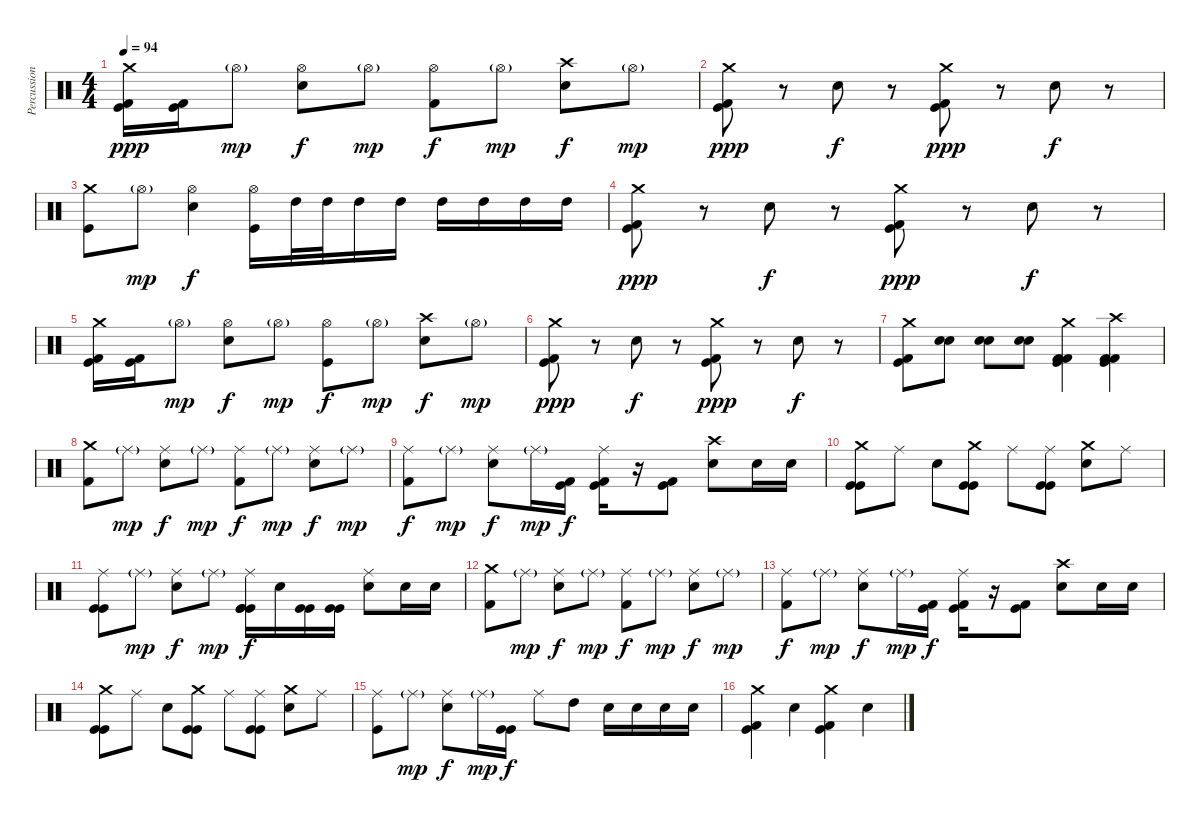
\track ("Percussion" "Percussion") {solo instrument percussion}
\staff {score}
\articulation defaults
\ts (4 4)
\tempo 94
\clef neutral
\ks c
("Crash medium (hit)" "Kick (hit) 2" "Kick (hit)").16{dy ppp} ("Kick (hit) 2" "Kick (hit)").16 "Hi-Hat (open)"{g}.8{dy mp} ("Hi-Hat (open)" "Electric Snare (hit)").8{dy f} "Hi-Hat (open)"{g}.8{dy mp} ("Hi-Hat (open)" "Kick (hit) 2").8{dy f} "Hi-Hat (open)"{g}.8{dy mp} ("Crash high (hit)" "Electric Snare (hit)").8{dy f} "Hi-Hat (open)"{g}.8{dy mp} |
("Kick (hit) 2" "Crash medium (hit)" "Kick (hit)").8{dy ppp} r.8 "Electric Snare (hit)".8{dy f} r.8 ("Kick (hit) 2" "Crash medium (hit)" "Kick (hit)").8{dy ppp} r.8 "Electric Snare (hit)".8{dy f} r.8 |
("Crash medium (hit)" "Kick (hit)").8 "Hi-Hat (open)"{g}.8{dy mp} ("Hi-Hat (open)" "Electric Snare (hit)").4{dy f} ("Hi-Hat (open)" "Kick (hit)").16 "High Tom (hit)".32 "High Tom (hit)".32 "High Tom (hit)".16 "High Tom (hit)".16 "High Tom (hit)".16 "High Tom (hit)".16 "High Tom (hit)".16 "High Tom (hit)".16 |
("Kick (hit) 2" "Crash medium (hit)" "Kick (hit)").8{dy ppp} r.8 "Electric Snare (hit)".8{dy f} r.8 ("Kick (hit) 2" "Crash medium (hit)" "Kick (hit)").8{dy ppp} r.8 "Electric Snare (hit)".8{dy f} r.8 |
("Kick (hit) 2" "Crash medium (hit)" "Kick (hit)").16 ("Kick (hit) 2" "Kick (hit)").16 "Hi-Hat (open)"{g}.8{dy mp} ("Hi-Hat (open)" "Electric Snare (hit)").8{dy f} "Hi-Hat (open)"{g}.8{dy mp} ("Hi-Hat (open)" "Kick (hit)").8{dy f} "Hi-Hat (open)"{g}.8{dy mp} ("Crash high (hit)" "Electric Snare (hit)").8{dy f} "Hi-Hat (open)"{g}.8{dy mp} |
("Kick (hit) 2" "Crash medium (hit)" "Kick (hit)").8{dy ppp} r.8 "Electric Snare (hit)".8{dy f} r.8 ("Kick (hit) 2" "Crash medium (hit)" "Kick (hit)").8{dy ppp} r.8 "Electric Snare (hit)".8{dy f} r.8 |
("Kick (hit) 2" "Crash medium (hit)" "Kick (hit)").8 ("Electric Snare (hit)" "Electric Snare (hit)").8 ("Electric Snare (hit)" "Electric Snare (hit)").8 ("Electric Snare (hit)" "Electric Snare (hit)").8 ("Kick (hit) 2" "Kick (hit) 2" "Crash medium (hit)" "Kick (hit)").4 ("Kick (hit) 2" "Kick (hit) 2" "Crash high (hit)" "Kick (hit)").4 |
("Crash medium (hit)" "Kick (hit) 2").8 "Ride (middle)"{g}.8{dy mp} ("Ride (middle)" "Electric Snare (hit)").8{dy f} "Ride (middle)"{g}.8{dy mp} ("Ride (middle)" "Kick (hit) 2").8{dy f} "Ride (middle)"{g}.8{dy mp} ("Ride (middle)" "Electric Snare (hit)").8{dy f} "Ride (middle)"{g}.8{dy mp} |
("Ride (middle)" "Kick (hit) 2").8{dy f} "Ride (middle)"{g}.8{dy mp} ("Ride (middle)" "Electric Snare (hit)").8{dy f} "Ride (middle)"{g}.16{dy mp} ("Kick (hit)" "Kick (hit) 2").16{dy f} ("Kick (hit)" "Ride (middle)" "Kick (hit) 2").16 r.16 ("Kick (hit)" "Kick (hit) 2").8 ("Crash high (hit)" "Electric Snare (hit)").8 "Electric Snare (hit)".16 "Electric Snare (hit)".16 |
("Kick (hit)" "Crash medium (hit)" "Kick (hit)").8 "Ride (middle)".8 "Electric Snare (hit)".8 ("Kick (hit)" "Crash medium (hit)" "Kick (hit)").8 "Ride (middle)".8 ("Kick (hit)" "Ride (middle)" "Kick (hit)").8 ("Crash medium (hit)" "Electric Snare (hit)").8 "Ride (middle)".8 |
("Kick (hit)" "Ride (middle)" "Kick (hit)").8 "Ride (middle)"{g}.8{dy mp} ("Ride (middle)" "Electric Snare (hit)").8{dy f} "Ride (middle)"{g}.8{dy mp} ("Kick (hit)" "Ride (middle)" "Kick (hit)" "Kick (hit)").16{dy f} "Electric Snare (hit)".16 ("Kick (hit)" "Kick (hit)").16 ("Kick (hit)" "Kick (hit)").16 ("Ride (middle)" "Electric Snare (hit)").8 "Electric Snare (hit)".16 "Electric Snare (hit)".16 |
("Crash medium (hit)" "Kick (hit) 2").8 "Ride (middle)"{g}.8{dy mp} ("Ride (middle)" "Electric Snare (hit)").8{dy f} "Ride (middle)"{g}.8{dy mp} ("Ride (middle)" "Kick (hit) 2").8{dy f} "Ride (middle)"{g}.8{dy mp} ("Ride (middle)" "Electric Snare (hit)").8{dy f} "Ride (middle)"{g}.8{dy mp} |
("Ride (middle)" "Kick (hit) 2").8{dy f} "Ride (middle)"{g}.8{dy mp} ("Ride (middle)" "Electric Snare (hit)").8{dy f} "Ride (middle)"{g}.16{dy mp} ("Kick (hit)" "Kick (hit) 2").16{dy f} ("Kick (hit)" "Ride (middle)" "Kick (hit) 2").16 r.16 ("Kick (hit)" "Kick (hit) 2").8 ("Crash high (hit)" "Electric Snare (hit)").8 "Electric Snare (hit)".16 "Electric Snare (hit)".16 |
("Kick (hit)" "Crash medium (hit)" "Kick (hit)").8 "Ride (middle)".8 "Electric Snare (hit)".8 ("Kick (hit)" "Crash medium (hit)" "Kick (hit)").8 "Ride (middle)".8 ("Kick (hit)" "Ride (middle)" "Kick (hit)").8 ("Crash medium (hit)" "Electric Snare (hit)").8 "Ride (middle)".8 |
("Ride (middle)" "Kick (hit)").8 "Ride (middle)"{g}.8{dy mp} ("Ride (middle)" "Electric Snare (hit)").8{dy f} "Ride (middle)"{g}.16{dy mp} ("Kick (hit)" "Kick (hit)").16{dy f} "Ride (middle)".8 "High Tom (hit)".8 "Electric Snare (hit)".16 "Electric Snare (hit)".16 "Electric Snare (hit)".16 "Electric Snare (hit)".16 |
("Kick (hit) 2" "Crash medium (hit)" "Kick (hit)").4 "Electric Snare (hit)".4 ("Kick (hit) 2" "Crash medium (hit)" "Kick (hit)").4 "Electric Snare (hit)".4
